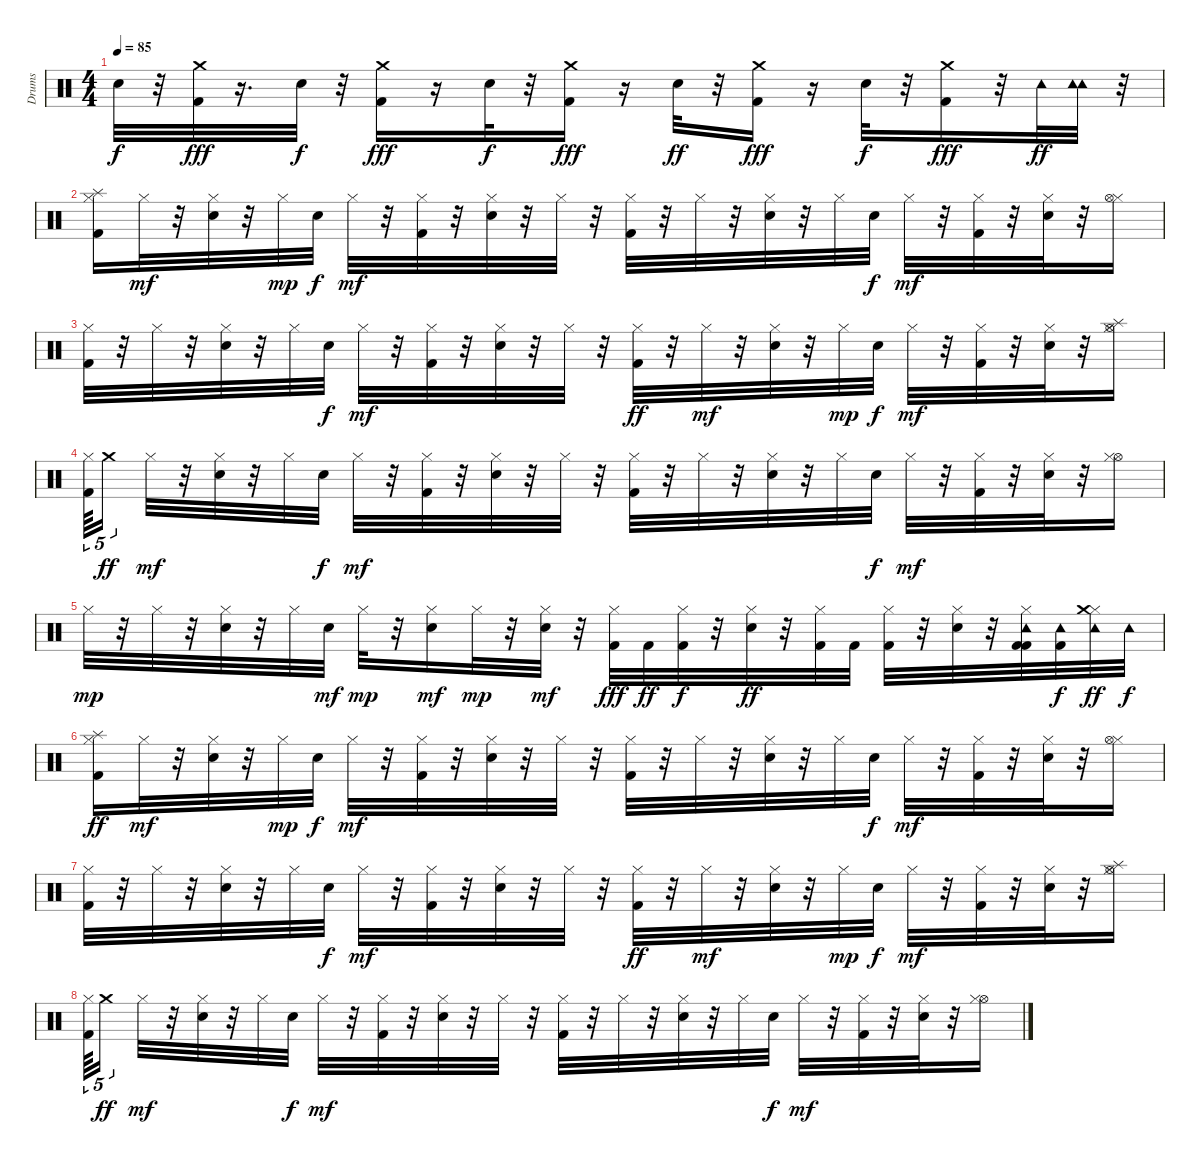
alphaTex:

\track ("Drums" "Drums") {instrument percussion}
\staff {score}
\articulation defaults
\ts (4 4)
\tempo 85
\clef neutral
\ks c "Electric Snare (hit)".32{dy f}
r.32 ("Crash medium (hit)" "Kick (hit) 2").32{dy fff} r.16{d} "Electric Snare (hit)".32{dy f} r.32 ("Crash medium (hit)" "Kick (hit) 2").16{dy fff} r.16 "Electric Snare (hit)".32{dy f} r.32 ("Crash medium (hit)" "Kick (hit) 2").16{dy fff} r.16 "Electric Snare (hit)".32{dy ff} r.32 ("Crash medium (hit)" "Kick (hit) 2").16{dy fff} r.16 "Electric Snare (hit)".32{dy f} r.32 ("Kick (hit) 2" "Crash medium (hit)").16{dy fff} r.32 "Tambourine (hit)".32{dy ff} ("Tambourine (hit)" "Tambourine (hit)").32 r.32 |
("Splash (hit)" "Kick (hit) 2" "Hi-Hat (closed)").16 "Hi-Hat (closed)".32{dy mf} r.32 ("Hi-Hat (closed)" "Electric Snare (hit)").32 r.32 "Hi-Hat (closed)".32{dy mp} "Electric Snare (hit)".32{dy f} "Hi-Hat (closed)".32{dy mf} r.32 ("Kick (hit) 2" "Hi-Hat (closed)").32 r.32 ("Electric Snare (hit)" "Hi-Hat (closed)").32 r.32 "Hi-Hat (closed)".32 r.32 ("Kick (hit) 2" "Hi-Hat (closed)").32 r.32 "Hi-Hat (closed)".32 r.32 ("Electric Snare (hit)" "Hi-Hat (closed)").32 r.32 "Hi-Hat (closed)".32 "Electric Snare (hit)".32{dy f} "Hi-Hat (closed)".32{dy mf} r.32 ("Kick (hit) 2" "Hi-Hat (closed)").32 r.32 ("Electric Snare (hit)" "Hi-Hat (closed)").32 r.32 ("Hi-Hat (closed)" "Hi-Hat (open)").16 |
("Kick (hit) 2" "Hi-Hat (closed)").32 r.32 "Hi-Hat (closed)".32 r.32 ("Electric Snare (hit)" "Hi-Hat (closed)").32 r.32 "Hi-Hat (closed)".32 "Electric Snare (hit)".32{dy f} "Hi-Hat (closed)".32{dy mf} r.32 ("Kick (hit) 2" "Hi-Hat (closed)").32 r.32 ("Hi-Hat (closed)" "Electric Snare (hit)").32 r.32 "Hi-Hat (closed)".32 r.32 ("Hi-Hat (closed)" "Kick (hit) 2").32{dy ff} r.32 "Hi-Hat (closed)".32{dy mf} r.32 ("Electric Snare (hit)" "Hi-Hat (closed)").32 r.32 "Hi-Hat (closed)".32{dy mp} "Electric Snare (hit)".32{dy f} "Hi-Hat (closed)".32{dy mf} r.32 ("Kick (hit) 2" "Hi-Hat (closed)").32 r.32 ("Electric Snare (hit)" "Hi-Hat (closed)").32 r.32 ("Hi-Hat (open)" "Hi-Hat (closed)" "Splash (hit)").16 |
("Kick (hit) 2" "Hi-Hat (closed)").64{tu (5 4)} "Crash medium (hit)".16{tu (5 4) dy ff beam splitsecondary} "Hi-Hat (closed)".32{dy mf} r.32 ("Electric Snare (hit)" "Hi-Hat (closed)").32 r.32 "Hi-Hat (closed)".32 "Electric Snare (hit)".32{dy f} "Hi-Hat (closed)".32{dy mf} r.32 ("Kick (hit) 2" "Hi-Hat (closed)").32 r.32 ("Electric Snare (hit)" "Hi-Hat (closed)").32 r.32 "Hi-Hat (closed)".32 r.32 ("Kick (hit) 2" "Hi-Hat (closed)").32 r.32 "Hi-Hat (closed)".32 r.32 ("Electric Snare (hit)" "Hi-Hat (closed)").32 r.32 "Hi-Hat (closed)".32 "Electric Snare (hit)".32{dy f} "Hi-Hat (closed)".32{dy mf} r.32 ("Kick (hit) 2" "Hi-Hat (closed)").32 r.32 ("Electric Snare (hit)" "Hi-Hat (closed)").32 r.32 ("Hi-Hat (open)" "Hi-Hat (closed)").16 |
"Hi-Hat (closed)".32{dy mp} r.32 "Hi-Hat (closed)".32 r.32 ("Hi-Hat (closed)" "Electric Snare (hit)").32 r.32 "Hi-Hat (closed)".32 "Electric Snare (hit)".32{dy mf} "Hi-Hat (closed)".32{dy mp} r.32 ("Electric Snare (hit)" "Hi-Hat (closed)").16{dy mf} "Hi-Hat (closed)".32{dy mp} r.32 ("Electric Snare (hit)" "Hi-Hat (closed)").32{dy mf} r.32 ("Hi-Hat (closed)" "Kick (hit) 2").32{dy fff} "Kick (hit) 2".32{dy ff} ("Hi-Hat (closed)" "Kick (hit) 2").32{dy f} r.32 ("Hi-Hat (closed)" "Electric Snare (hit)").32{dy ff} r.32 ("Hi-Hat (closed)" "Kick (hit) 2").32 "Kick (hit) 2".32 ("Hi-Hat (closed)" "Kick (hit) 2").32 r.32 ("Hi-Hat (closed)" "Electric Snare (hit)").32 r.32 ("Hi-Hat (closed)" "Kick (hit) 2" "Kick (hit) 2" "Tambourine (hit)").32 ("Kick (hit) 2" "Tambourine (hit)").32{dy f} ("Hi-Hat (closed)" "Tambourine (hit)" "Crash medium (hit)").32{dy ff} "Tambourine (hit)".32{dy f} |
("Splash (hit)" "Kick (hit) 2" "Hi-Hat (closed)").16{dy ff} "Hi-Hat (closed)".32{dy mf} r.32 ("Hi-Hat (closed)" "Electric Snare (hit)").32 r.32 "Hi-Hat (closed)".32{dy mp} "Electric Snare (hit)".32{dy f} "Hi-Hat (closed)".32{dy mf} r.32 ("Kick (hit) 2" "Hi-Hat (closed)").32 r.32 ("Electric Snare (hit)" "Hi-Hat (closed)").32 r.32 "Hi-Hat (closed)".32 r.32 ("Kick (hit) 2" "Hi-Hat (closed)").32 r.32 "Hi-Hat (closed)".32 r.32 ("Electric Snare (hit)" "Hi-Hat (closed)").32 r.32 "Hi-Hat (closed)".32 "Electric Snare (hit)".32{dy f} "Hi-Hat (closed)".32{dy mf} r.32 ("Kick (hit) 2" "Hi-Hat (closed)").32 r.32 ("Electric Snare (hit)" "Hi-Hat (closed)").32 r.32 ("Hi-Hat (closed)" "Hi-Hat (open)").16 |
("Kick (hit) 2" "Hi-Hat (closed)").32 r.32 "Hi-Hat (closed)".32 r.32 ("Electric Snare (hit)" "Hi-Hat (closed)").32 r.32 "Hi-Hat (closed)".32 "Electric Snare (hit)".32{dy f} "Hi-Hat (closed)".32{dy mf} r.32 ("Kick (hit) 2" "Hi-Hat (closed)").32 r.32 ("Hi-Hat (closed)" "Electric Snare (hit)").32 r.32 "Hi-Hat (closed)".32 r.32 ("Hi-Hat (closed)" "Kick (hit) 2").32{dy ff} r.32 "Hi-Hat (closed)".32{dy mf} r.32 ("Electric Snare (hit)" "Hi-Hat (closed)").32 r.32 "Hi-Hat (closed)".32{dy mp} "Electric Snare (hit)".32{dy f} "Hi-Hat (closed)".32{dy mf} r.32 ("Kick (hit) 2" "Hi-Hat (closed)").32 r.32 ("Electric Snare (hit)" "Hi-Hat (closed)").32 r.32 ("Hi-Hat (open)" "Hi-Hat (closed)" "Splash (hit)").16 |
("Kick (hit) 2" "Hi-Hat (closed)").64{tu (5 4)} "Crash medium (hit)".16{tu (5 4) dy ff beam splitsecondary} "Hi-Hat (closed)".32{dy mf} r.32 ("Electric Snare (hit)" "Hi-Hat (closed)").32 r.32 "Hi-Hat (closed)".32 "Electric Snare (hit)".32{dy f} "Hi-Hat (closed)".32{dy mf} r.32 ("Kick (hit) 2" "Hi-Hat (closed)").32 r.32 ("Electric Snare (hit)" "Hi-Hat (closed)").32 r.32 "Hi-Hat (closed)".32 r.32 ("Kick (hit) 2" "Hi-Hat (closed)").32 r.32 "Hi-Hat (closed)".32 r.32 ("Electric Snare (hit)" "Hi-Hat (closed)").32 r.32 "Hi-Hat (closed)".32 "Electric Snare (hit)".32{dy f} "Hi-Hat (closed)".32{dy mf} r.32 ("Kick (hit) 2" "Hi-Hat (closed)").32 r.32 ("Electric Snare (hit)" "Hi-Hat (closed)").32 r.32 ("Hi-Hat (open)" "Hi-Hat (closed)").16
